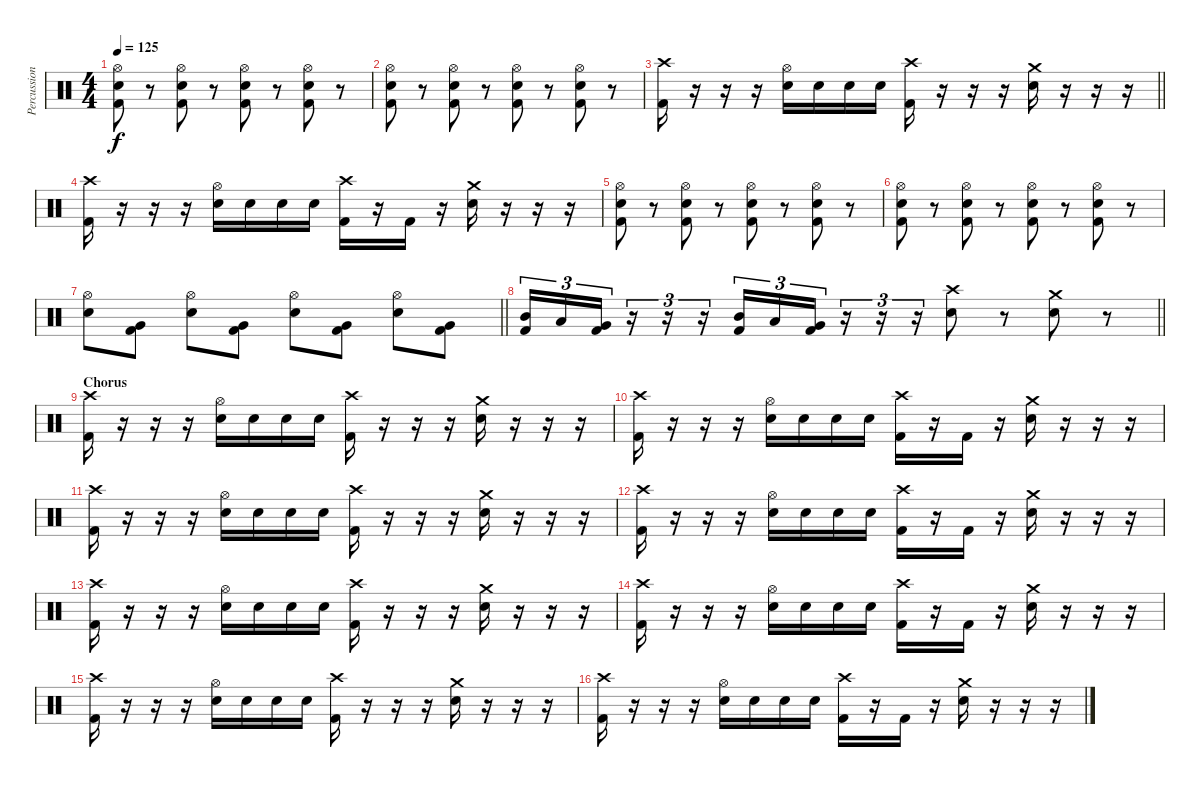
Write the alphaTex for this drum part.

\track ("Percussion" "Percussion") {instrument percussion}
\staff {score}
\articulation defaults
\ts (4 4)
\tempo 125
\clef neutral
\ks c
("Hi-Hat (open)" "Snare (hit) 2" "Kick (hit) 2").8{dy f} r.8 ("Hi-Hat (open)" "Snare (hit) 2" "Kick (hit) 2").8 r.8 ("Hi-Hat (open)" "Snare (hit) 2" "Kick (hit) 2").8 r.8 ("Hi-Hat (open)" "Snare (hit) 2" "Kick (hit) 2").8 r.8 |
("Hi-Hat (open)" "Snare (hit) 2" "Kick (hit) 2").8 r.8 ("Hi-Hat (open)" "Snare (hit) 2" "Kick (hit) 2").8 r.8 ("Hi-Hat (open)" "Snare (hit) 2" "Kick (hit) 2").8 r.8 ("Hi-Hat (open)" "Snare (hit) 2" "Kick (hit) 2").8 r.8 |
\barLineRight lightlight
("Crash high (hit)" "Kick (hit) 2").16 r.16 r.16 r.16 ("Hi-Hat (open)" "Snare (hit) 2").16 "Snare (hit) 2".16 "Snare (hit) 2".16 "Snare (hit) 2".16 ("Crash high (hit)" "Kick (hit) 2").16 r.16 r.16 r.16 ("Crash medium (hit)" "Snare (hit) 2").16 r.16 r.16 r.16 |
("Crash high (hit)" "Kick (hit) 2").16 r.16 r.16 r.16 ("Hi-Hat (open)" "Snare (hit) 2").16 "Snare (hit) 2".16 "Snare (hit) 2".16 "Snare (hit) 2".16 ("Crash high (hit)" "Kick (hit) 2").16 r.16 "Kick (hit) 2".16 r.16 ("Crash medium (hit)" "Snare (hit) 2").16 r.16 r.16 r.16 |
("Hi-Hat (open)" "Snare (hit) 2" "Kick (hit) 2").8 r.8 ("Hi-Hat (open)" "Snare (hit) 2" "Kick (hit) 2").8 r.8 ("Hi-Hat (open)" "Snare (hit) 2" "Kick (hit) 2").8 r.8 ("Hi-Hat (open)" "Snare (hit) 2" "Kick (hit) 2").8 r.8 |
("Hi-Hat (open)" "Snare (hit) 2" "Kick (hit) 2").8 r.8 ("Hi-Hat (open)" "Snare (hit) 2" "Kick (hit) 2").8 r.8 ("Hi-Hat (open)" "Snare (hit) 2" "Kick (hit) 2").8 r.8 ("Hi-Hat (open)" "Snare (hit) 2" "Kick (hit) 2").8 r.8 |
\barLineRight lightlight
("Hi-Hat (open)" "Snare (hit) 2").8 ("Very Low Tom (hit)" "Kick (hit) 2").8 ("Hi-Hat (open)" "Snare (hit) 2").8 ("Very Low Tom (hit)" "Kick (hit) 2").8 ("Hi-Hat (open)" "Snare (hit) 2").8 ("Very Low Tom (hit)" "Kick (hit) 2").8 ("Hi-Hat (open)" "Snare (hit) 2").8 ("Very Low Tom (hit)" "Kick (hit) 2").8 |
\barLineRight lightlight
("Mid Tom (hit)" "Kick (hit) 2").16{tu (3 2)} "Low Tom (hit)".16{tu (3 2)} ("Very Low Tom (hit)" "Kick (hit) 2").16{tu (3 2)} r.16{tu (3 2)} r.16{tu (3 2)} r.16{tu (3 2)} ("Mid Tom (hit)" "Kick (hit) 2").16{tu (3 2)} "Low Tom (hit)".16{tu (3 2)} ("Very Low Tom (hit)" "Kick (hit) 2").16{tu (3 2)} r.16{tu (3 2)} r.16{tu (3 2)} r.16{tu (3 2)} ("Crash high (hit)" "Snare (hit) 2").8 r.8 ("Crash medium (hit)" "Snare (hit) 2").8 r.8 |
\section ("" "Chorus")
("Crash high (hit)" "Kick (hit) 2").16 r.16 r.16 r.16 ("Hi-Hat (open)" "Snare (hit) 2").16 "Snare (hit) 2".16 "Snare (hit) 2".16 "Snare (hit) 2".16 ("Crash high (hit)" "Kick (hit) 2").16 r.16 r.16 r.16 ("Crash medium (hit)" "Snare (hit) 2").16 r.16 r.16 r.16 |
("Crash high (hit)" "Kick (hit) 2").16 r.16 r.16 r.16 ("Hi-Hat (open)" "Snare (hit) 2").16 "Snare (hit) 2".16 "Snare (hit) 2".16 "Snare (hit) 2".16 ("Crash high (hit)" "Kick (hit) 2").16 r.16 "Kick (hit) 2".16 r.16 ("Crash medium (hit)" "Snare (hit) 2").16 r.16 r.16 r.16 |
("Crash high (hit)" "Kick (hit) 2").16 r.16 r.16 r.16 ("Hi-Hat (open)" "Snare (hit) 2").16 "Snare (hit) 2".16 "Snare (hit) 2".16 "Snare (hit) 2".16 ("Crash high (hit)" "Kick (hit) 2").16 r.16 r.16 r.16 ("Crash medium (hit)" "Snare (hit) 2").16 r.16 r.16 r.16 |
("Crash high (hit)" "Kick (hit) 2").16 r.16 r.16 r.16 ("Hi-Hat (open)" "Snare (hit) 2").16 "Snare (hit) 2".16 "Snare (hit) 2".16 "Snare (hit) 2".16 ("Crash high (hit)" "Kick (hit) 2").16 r.16 "Kick (hit) 2".16 r.16 ("Crash medium (hit)" "Snare (hit) 2").16 r.16 r.16 r.16 |
("Crash high (hit)" "Kick (hit) 2").16 r.16 r.16 r.16 ("Hi-Hat (open)" "Snare (hit) 2").16 "Snare (hit) 2".16 "Snare (hit) 2".16 "Snare (hit) 2".16 ("Crash high (hit)" "Kick (hit) 2").16 r.16 r.16 r.16 ("Crash medium (hit)" "Snare (hit) 2").16 r.16 r.16 r.16 |
("Crash high (hit)" "Kick (hit) 2").16 r.16 r.16 r.16 ("Hi-Hat (open)" "Snare (hit) 2").16 "Snare (hit) 2".16 "Snare (hit) 2".16 "Snare (hit) 2".16 ("Crash high (hit)" "Kick (hit) 2").16 r.16 "Kick (hit) 2".16 r.16 ("Crash medium (hit)" "Snare (hit) 2").16 r.16 r.16 r.16 |
("Crash high (hit)" "Kick (hit) 2").16 r.16 r.16 r.16 ("Hi-Hat (open)" "Snare (hit) 2").16 "Snare (hit) 2".16 "Snare (hit) 2".16 "Snare (hit) 2".16 ("Crash high (hit)" "Kick (hit) 2").16 r.16 r.16 r.16 ("Crash medium (hit)" "Snare (hit) 2").16 r.16 r.16 r.16 |
("Crash high (hit)" "Kick (hit) 2").16 r.16 r.16 r.16 ("Hi-Hat (open)" "Snare (hit) 2").16 "Snare (hit) 2".16 "Snare (hit) 2".16 "Snare (hit) 2".16 ("Crash high (hit)" "Kick (hit) 2").16 r.16 "Kick (hit) 2".16 r.16 ("Crash medium (hit)" "Snare (hit) 2").16 r.16 r.16 r.16
